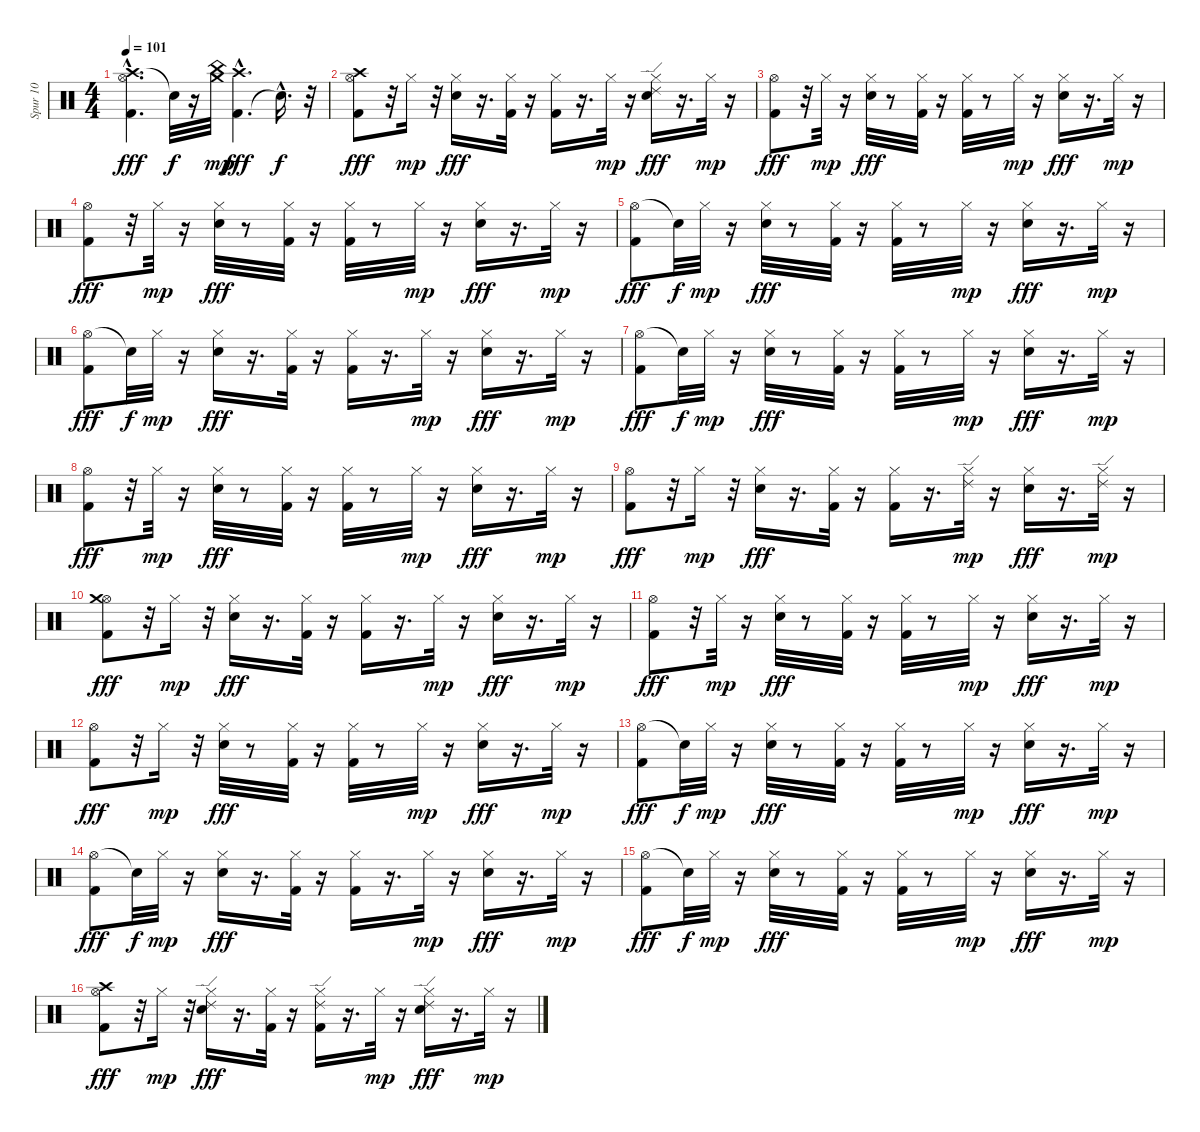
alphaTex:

\track ("Spur 10" "Spur 10") {instrument percussion}
\staff {score}
\articulation defaults
\ts (4 4)
\tempo 101
\clef neutral
\ks c
("Crash high (hit)" "Hi-Hat (open)"{hac} "Kick (hit) 2").4{d dy fff} "Snare (hit)"{t}.32{dy f} r.16 ("China (hit)" "Crash medium (hit)").32{dy mp} ("Kick (hit) 2" "Crash high (hit)"{hac}).4{d dy fff} "Snare (hit)"{hac t}.16{d dy f} r.32 |
("Hi-Hat (open)" "Kick (hit) 2" "Crash high (hit)").8{dy fff} r.32 "Hi-Hat (closed)".16{dy mp} r.32 ("Hi-Hat (closed)" "Snare (hit) 2").16{dy fff} r.16{d} ("Hi-Hat (closed)" "Kick (hit) 2").32 r.16 ("Hi-Hat (closed)" "Kick (hit) 2").16 r.16{d} "Hi-Hat (closed)".32{dy mp} r.16 ("Hi-Hat (closed)" "Snare (hit) 2" "Ride (edge) 2").16{dy fff} r.16{d} "Hi-Hat (closed)".32{dy mp} r.16 |
("Hi-Hat (open)" "Kick (hit) 2").8{dy fff} r.32 "Hi-Hat (closed)".32{dy mp} r.16 ("Hi-Hat (closed)" "Snare (hit) 2").32{dy fff} r.8 ("Hi-Hat (closed)" "Kick (hit) 2").32 r.16 ("Hi-Hat (closed)" "Kick (hit) 2").32 r.8 "Hi-Hat (closed)".32{dy mp} r.16 ("Hi-Hat (closed)" "Snare (hit) 2").16{dy fff} r.16{d} "Hi-Hat (closed)".32{dy mp} r.16 |
("Hi-Hat (open)" "Kick (hit) 2").8{dy fff} r.32 "Hi-Hat (closed)".32{dy mp} r.16 ("Hi-Hat (closed)" "Snare (hit) 2").32{dy fff} r.8 ("Hi-Hat (closed)" "Kick (hit) 2").32 r.16 ("Hi-Hat (closed)" "Kick (hit) 2").32 r.8 "Hi-Hat (closed)".32{dy mp} r.16 ("Hi-Hat (closed)" "Snare (hit) 2").16{dy fff} r.16{d} "Hi-Hat (closed)".32{dy mp} r.16 |
("Hi-Hat (open)" "Kick (hit) 2").8{dy fff} "Snare (hit)"{t}.32{dy f} "Hi-Hat (closed)".32{dy mp} r.16 ("Hi-Hat (closed)" "Snare (hit) 2").32{dy fff} r.8 ("Hi-Hat (closed)" "Kick (hit) 2").32 r.16 ("Hi-Hat (closed)" "Kick (hit) 2").32 r.8 "Hi-Hat (closed)".32{dy mp} r.16 ("Hi-Hat (closed)" "Snare (hit) 2").16{dy fff} r.16{d} "Hi-Hat (closed)".32{dy mp} r.16 |
("Hi-Hat (open)" "Kick (hit) 2").8{dy fff} "Snare (hit)"{t}.32{dy f} "Hi-Hat (closed)".32{dy mp} r.16 ("Hi-Hat (closed)" "Snare (hit) 2").16{dy fff} r.16{d} ("Hi-Hat (closed)" "Kick (hit) 2").32 r.16 ("Hi-Hat (closed)" "Kick (hit) 2").16 r.16{d} "Hi-Hat (closed)".32{dy mp} r.16 ("Hi-Hat (closed)" "Snare (hit) 2").16{dy fff} r.16{d} "Hi-Hat (closed)".32{dy mp} r.16 |
("Hi-Hat (open)" "Kick (hit) 2").8{dy fff} "Snare (hit)"{t}.32{dy f} "Hi-Hat (closed)".32{dy mp} r.16 ("Hi-Hat (closed)" "Snare (hit) 2").32{dy fff} r.8 ("Hi-Hat (closed)" "Kick (hit) 2").32 r.16 ("Hi-Hat (closed)" "Kick (hit) 2").32 r.8 "Hi-Hat (closed)".32{dy mp} r.16 ("Hi-Hat (closed)" "Snare (hit) 2").16{dy fff} r.16{d} "Hi-Hat (closed)".32{dy mp} r.16 |
("Hi-Hat (open)" "Kick (hit) 2").8{dy fff} r.32 "Hi-Hat (closed)".32{dy mp} r.16 ("Hi-Hat (closed)" "Snare (hit) 2").32{dy fff} r.8 ("Hi-Hat (closed)" "Kick (hit) 2").32 r.16 ("Hi-Hat (closed)" "Kick (hit) 2").32 r.8 "Hi-Hat (closed)".32{dy mp} r.16 ("Hi-Hat (closed)" "Snare (hit) 2").16{dy fff} r.16{d} "Hi-Hat (closed)".32{dy mp} r.16 |
("Hi-Hat (open)" "Kick (hit) 2").8{dy fff} r.32 "Hi-Hat (closed)".16{dy mp} r.32 ("Hi-Hat (closed)" "Snare (hit) 2").16{dy fff} r.16{d} ("Hi-Hat (closed)" "Kick (hit) 2").32 r.16 ("Hi-Hat (closed)" "Kick (hit) 2").16 r.16{d} ("Hi-Hat (closed)" "Ride (edge) 2").32{dy mp} r.16 ("Hi-Hat (closed)" "Snare (hit) 2").16{dy fff} r.16{d} ("Hi-Hat (closed)" "Ride (edge) 2").32{dy mp} r.16 |
("Hi-Hat (open)" "Kick (hit) 2" "Crash medium (hit)").8{dy fff} r.32 "Hi-Hat (closed)".16{dy mp} r.32 ("Hi-Hat (closed)" "Snare (hit) 2").16{dy fff} r.16{d} ("Hi-Hat (closed)" "Kick (hit) 2").32 r.16 ("Hi-Hat (closed)" "Kick (hit) 2").16 r.16{d} "Hi-Hat (closed)".32{dy mp} r.16 ("Hi-Hat (closed)" "Snare (hit) 2").16{dy fff} r.16{d} "Hi-Hat (closed)".32{dy mp} r.16 |
("Hi-Hat (open)" "Kick (hit) 2").8{dy fff} r.32 "Hi-Hat (closed)".32{dy mp} r.16 ("Hi-Hat (closed)" "Snare (hit) 2").32{dy fff} r.8 ("Hi-Hat (closed)" "Kick (hit) 2").32 r.16 ("Hi-Hat (closed)" "Kick (hit) 2").32 r.8 "Hi-Hat (closed)".32{dy mp} r.16 ("Hi-Hat (closed)" "Snare (hit) 2").16{dy fff} r.16{d} "Hi-Hat (closed)".32{dy mp} r.16 |
("Hi-Hat (open)" "Kick (hit) 2").8{dy fff} r.32 "Hi-Hat (closed)".16{dy mp} r.32 ("Hi-Hat (closed)" "Snare (hit) 2").32{dy fff} r.8 ("Hi-Hat (closed)" "Kick (hit) 2").32 r.16 ("Hi-Hat (closed)" "Kick (hit) 2").32 r.8 "Hi-Hat (closed)".32{dy mp} r.16 ("Hi-Hat (closed)" "Snare (hit) 2").16{dy fff} r.16{d} "Hi-Hat (closed)".32{dy mp} r.16 |
("Hi-Hat (open)" "Kick (hit) 2").8{dy fff} "Snare (hit)"{t}.32{dy f} "Hi-Hat (closed)".32{dy mp} r.16 ("Hi-Hat (closed)" "Snare (hit) 2").32{dy fff} r.8 ("Hi-Hat (closed)" "Kick (hit) 2").32 r.16 ("Hi-Hat (closed)" "Kick (hit) 2").32 r.8 "Hi-Hat (closed)".32{dy mp} r.16 ("Hi-Hat (closed)" "Snare (hit) 2").16{dy fff} r.16{d} "Hi-Hat (closed)".32{dy mp} r.16 |
("Hi-Hat (open)" "Kick (hit) 2").8{dy fff} "Snare (hit)"{t}.32{dy f} "Hi-Hat (closed)".32{dy mp} r.16 ("Hi-Hat (closed)" "Snare (hit) 2").16{dy fff} r.16{d} ("Hi-Hat (closed)" "Kick (hit) 2").32 r.16 ("Hi-Hat (closed)" "Kick (hit) 2").16 r.16{d} "Hi-Hat (closed)".32{dy mp} r.16 ("Hi-Hat (closed)" "Snare (hit) 2").16{dy fff} r.16{d} "Hi-Hat (closed)".32{dy mp} r.16 |
("Hi-Hat (open)" "Kick (hit) 2").8{dy fff} "Snare (hit)"{t}.32{dy f} "Hi-Hat (closed)".32{dy mp} r.16 ("Hi-Hat (closed)" "Snare (hit) 2").32{dy fff} r.8 ("Hi-Hat (closed)" "Kick (hit) 2").32 r.16 ("Hi-Hat (closed)" "Kick (hit) 2").32 r.8 "Hi-Hat (closed)".32{dy mp} r.16 ("Hi-Hat (closed)" "Snare (hit) 2").16{dy fff} r.16{d} "Hi-Hat (closed)".32{dy mp} r.16 |
("Crash high (hit)" "Hi-Hat (open)" "Kick (hit) 2").8{dy fff} r.32 "Hi-Hat (closed)".16{dy mp} r.32 ("Ride (edge) 2" "Hi-Hat (closed)" "Snare (hit) 2").16{dy fff} r.16{d} ("Hi-Hat (closed)" "Kick (hit) 2").32 r.16 ("Hi-Hat (closed)" "Kick (hit) 2" "Ride (edge) 2").16 r.16{d} "Hi-Hat (closed)".32{dy mp} r.16 ("Hi-Hat (closed)" "Snare (hit) 2" "Ride (edge) 2").16{dy fff} r.16{d} "Hi-Hat (closed)".32{dy mp} r.16
